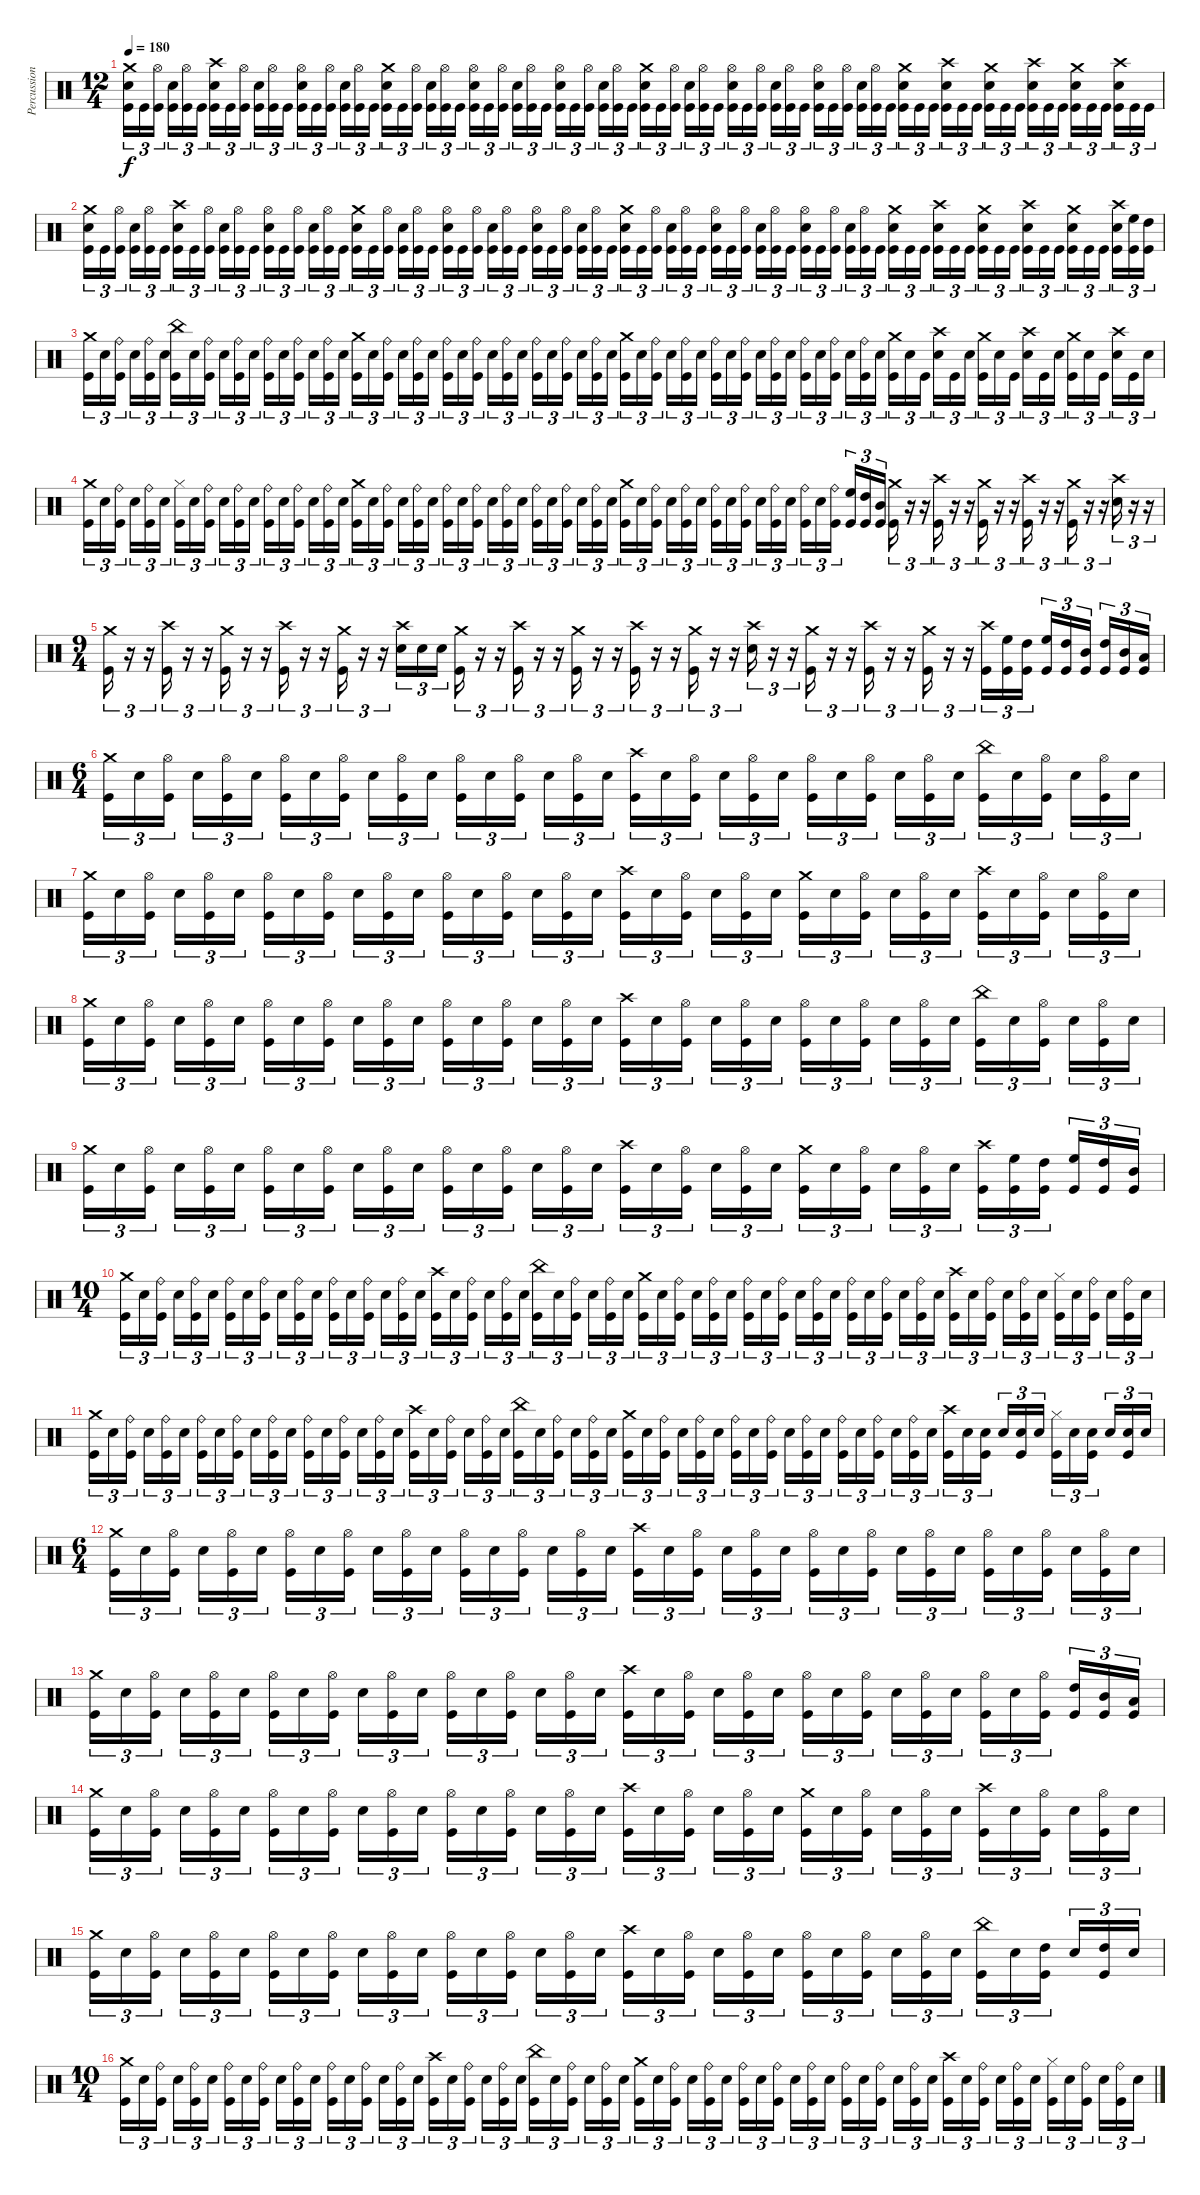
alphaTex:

\track ("Percussion" "Percussion") {instrument percussion}
\staff {score}
\articulation defaults
\ts (12 4)
\tempo 180
\clef neutral
\ks c
("Crash medium (hit)" "Snare (hit) 2" "Kick (hit)").16{tu (3 2) dy f} "Kick (hit)".16{tu (3 2)} ("Hi-Hat (open)" "Kick (hit)").16{tu (3 2) beam splitsecondary} ("Snare (hit) 2" "Kick (hit)").16{tu (3 2)} ("Hi-Hat (open)" "Kick (hit)").16{tu (3 2)} "Kick (hit)".16{tu (3 2) beam splitsecondary} ("Crash high (hit)" "Snare (hit) 2" "Kick (hit)").16{tu (3 2)} "Kick (hit)".16{tu (3 2)} ("Hi-Hat (open)" "Kick (hit)").16{tu (3 2) beam splitsecondary} ("Snare (hit) 2" "Kick (hit)").16{tu (3 2)} ("Hi-Hat (open)" "Kick (hit)").16{tu (3 2)} "Kick (hit)".16{tu (3 2) beam splitsecondary} ("Hi-Hat (open)" "Snare (hit) 2" "Kick (hit)").16{tu (3 2)} "Kick (hit)".16{tu (3 2)} ("Hi-Hat (open)" "Kick (hit)").16{tu (3 2) beam splitsecondary} ("Snare (hit) 2" "Kick (hit)").16{tu (3 2)} ("Hi-Hat (open)" "Kick (hit)").16{tu (3 2)} "Kick (hit)".16{tu (3 2)} ("Crash medium (hit)" "Snare (hit) 2" "Kick (hit)").16{tu (3 2)} "Kick (hit)".16{tu (3 2)} ("Hi-Hat (open)" "Kick (hit)").16{tu (3 2) beam splitsecondary} ("Snare (hit) 2" "Kick (hit)").16{tu (3 2)} ("Hi-Hat (open)" "Kick (hit)").16{tu (3 2)} "Kick (hit)".16{tu (3 2) beam splitsecondary} ("Hi-Hat (open)" "Snare (hit) 2" "Kick (hit)").16{tu (3 2)} "Kick (hit)".16{tu (3 2)} ("Hi-Hat (open)" "Kick (hit)").16{tu (3 2) beam splitsecondary} ("Snare (hit) 2" "Kick (hit)").16{tu (3 2)} ("Hi-Hat (open)" "Kick (hit)").16{tu (3 2)} "Kick (hit)".16{tu (3 2) beam splitsecondary} ("Hi-Hat (open)" "Snare (hit) 2" "Kick (hit)").16{tu (3 2)} "Kick (hit)".16{tu (3 2)} ("Hi-Hat (open)" "Kick (hit)").16{tu (3 2) beam splitsecondary} ("Snare (hit) 2" "Kick (hit)").16{tu (3 2)} ("Hi-Hat (open)" "Kick (hit)").16{tu (3 2)} "Kick (hit)".16{tu (3 2)} ("Crash medium (hit)" "Snare (hit) 2" "Kick (hit)").16{tu (3 2)} "Kick (hit)".16{tu (3 2)} ("Hi-Hat (open)" "Kick (hit)").16{tu (3 2) beam splitsecondary} ("Snare (hit) 2" "Kick (hit)").16{tu (3 2)} ("Hi-Hat (open)" "Kick (hit)").16{tu (3 2)} "Kick (hit)".16{tu (3 2) beam splitsecondary} ("Hi-Hat (open)" "Snare (hit) 2" "Kick (hit)").16{tu (3 2)} "Kick (hit)".16{tu (3 2)} ("Hi-Hat (open)" "Kick (hit)").16{tu (3 2) beam splitsecondary} ("Snare (hit) 2" "Kick (hit)").16{tu (3 2)} ("Hi-Hat (open)" "Kick (hit)").16{tu (3 2)} "Kick (hit)".16{tu (3 2) beam splitsecondary} ("Hi-Hat (open)" "Snare (hit) 2" "Kick (hit)").16{tu (3 2)} "Kick (hit)".16{tu (3 2)} ("Hi-Hat (open)" "Kick (hit)").16{tu (3 2) beam splitsecondary} ("Snare (hit) 2" "Kick (hit)").16{tu (3 2)} ("Hi-Hat (open)" "Kick (hit)").16{tu (3 2)} "Kick (hit)".16{tu (3 2)} ("Crash medium (hit)" "Snare (hit) 2" "Kick (hit)").16{tu (3 2)} "Kick (hit)".16{tu (3 2)} "Kick (hit)".16{tu (3 2) beam splitsecondary} ("Crash high (hit)" "Snare (hit) 2" "Kick (hit)").16{tu (3 2)} "Kick (hit)".16{tu (3 2)} "Kick (hit)".16{tu (3 2) beam splitsecondary} ("Crash medium (hit)" "Snare (hit) 2" "Kick (hit)").16{tu (3 2)} "Kick (hit)".16{tu (3 2)} "Kick (hit)".16{tu (3 2) beam splitsecondary} ("Crash high (hit)" "Snare (hit) 2" "Kick (hit)").16{tu (3 2)} "Kick (hit)".16{tu (3 2)} "Kick (hit)".16{tu (3 2) beam splitsecondary} ("Crash medium (hit)" "Snare (hit) 2" "Kick (hit)").16{tu (3 2)} "Kick (hit)".16{tu (3 2)} "Kick (hit)".16{tu (3 2) beam splitsecondary} ("Crash high (hit)" "Snare (hit) 2" "Kick (hit)").16{tu (3 2)} "Kick (hit)".16{tu (3 2)} "Kick (hit)".16{tu (3 2)} |
("Crash medium (hit)" "Snare (hit) 2" "Kick (hit)").16{tu (3 2)} "Kick (hit)".16{tu (3 2)} ("Hi-Hat (open)" "Kick (hit)").16{tu (3 2) beam splitsecondary} ("Snare (hit) 2" "Kick (hit)").16{tu (3 2)} ("Hi-Hat (open)" "Kick (hit)").16{tu (3 2)} "Kick (hit)".16{tu (3 2) beam splitsecondary} ("Crash high (hit)" "Snare (hit) 2" "Kick (hit)").16{tu (3 2)} "Kick (hit)".16{tu (3 2)} ("Hi-Hat (open)" "Kick (hit)").16{tu (3 2) beam splitsecondary} ("Snare (hit) 2" "Kick (hit)").16{tu (3 2)} ("Hi-Hat (open)" "Kick (hit)").16{tu (3 2)} "Kick (hit)".16{tu (3 2) beam splitsecondary} ("Hi-Hat (open)" "Snare (hit) 2" "Kick (hit)").16{tu (3 2)} "Kick (hit)".16{tu (3 2)} ("Hi-Hat (open)" "Kick (hit)").16{tu (3 2) beam splitsecondary} ("Snare (hit) 2" "Kick (hit)").16{tu (3 2)} ("Hi-Hat (open)" "Kick (hit)").16{tu (3 2)} "Kick (hit)".16{tu (3 2)} ("Crash medium (hit)" "Snare (hit) 2" "Kick (hit)").16{tu (3 2)} "Kick (hit)".16{tu (3 2)} ("Hi-Hat (open)" "Kick (hit)").16{tu (3 2) beam splitsecondary} ("Snare (hit) 2" "Kick (hit)").16{tu (3 2)} ("Hi-Hat (open)" "Kick (hit)").16{tu (3 2)} "Kick (hit)".16{tu (3 2) beam splitsecondary} ("Hi-Hat (open)" "Snare (hit) 2" "Kick (hit)").16{tu (3 2)} "Kick (hit)".16{tu (3 2)} ("Hi-Hat (open)" "Kick (hit)").16{tu (3 2) beam splitsecondary} ("Snare (hit) 2" "Kick (hit)").16{tu (3 2)} ("Hi-Hat (open)" "Kick (hit)").16{tu (3 2)} "Kick (hit)".16{tu (3 2) beam splitsecondary} ("Hi-Hat (open)" "Snare (hit) 2" "Kick (hit)").16{tu (3 2)} "Kick (hit)".16{tu (3 2)} ("Hi-Hat (open)" "Kick (hit)").16{tu (3 2) beam splitsecondary} ("Snare (hit) 2" "Kick (hit)").16{tu (3 2)} ("Hi-Hat (open)" "Kick (hit)").16{tu (3 2)} "Kick (hit)".16{tu (3 2)} ("Crash medium (hit)" "Snare (hit) 2" "Kick (hit)").16{tu (3 2)} "Kick (hit)".16{tu (3 2)} ("Hi-Hat (open)" "Kick (hit)").16{tu (3 2) beam splitsecondary} ("Snare (hit) 2" "Kick (hit)").16{tu (3 2)} ("Hi-Hat (open)" "Kick (hit)").16{tu (3 2)} "Kick (hit)".16{tu (3 2) beam splitsecondary} ("Hi-Hat (open)" "Snare (hit) 2" "Kick (hit)").16{tu (3 2)} "Kick (hit)".16{tu (3 2)} ("Hi-Hat (open)" "Kick (hit)").16{tu (3 2) beam splitsecondary} ("Snare (hit) 2" "Kick (hit)").16{tu (3 2)} ("Hi-Hat (open)" "Kick (hit)").16{tu (3 2)} "Kick (hit)".16{tu (3 2) beam splitsecondary} ("Hi-Hat (open)" "Snare (hit) 2" "Kick (hit)").16{tu (3 2)} "Kick (hit)".16{tu (3 2)} ("Hi-Hat (open)" "Kick (hit)").16{tu (3 2) beam splitsecondary} ("Snare (hit) 2" "Kick (hit)").16{tu (3 2)} ("Hi-Hat (open)" "Kick (hit)").16{tu (3 2)} "Kick (hit)".16{tu (3 2)} ("Crash medium (hit)" "Snare (hit) 2" "Kick (hit)").16{tu (3 2)} "Kick (hit)".16{tu (3 2)} "Kick (hit)".16{tu (3 2) beam splitsecondary} ("Crash high (hit)" "Snare (hit) 2" "Kick (hit)").16{tu (3 2)} "Kick (hit)".16{tu (3 2)} "Kick (hit)".16{tu (3 2) beam splitsecondary} ("Crash medium (hit)" "Snare (hit) 2" "Kick (hit)").16{tu (3 2)} "Kick (hit)".16{tu (3 2)} "Kick (hit)".16{tu (3 2) beam splitsecondary} ("Crash high (hit)" "Snare (hit) 2" "Kick (hit)").16{tu (3 2)} "Kick (hit)".16{tu (3 2)} "Kick (hit)".16{tu (3 2) beam splitsecondary} ("Crash medium (hit)" "Snare (hit) 2" "Kick (hit)").16{tu (3 2)} "Kick (hit)".16{tu (3 2)} "Kick (hit)".16{tu (3 2) beam splitsecondary} ("Crash high (hit)" "Snare (hit) 2" "Kick (hit)").16{tu (3 2)} ("High Floor Tom (hit)" "Kick (hit)").16{tu (3 2)} ("High Tom (hit)" "Kick (hit)").16{tu (3 2)} |
("Crash medium (hit)" "Kick (hit)").16{tu (3 2)} "Snare (hit) 2".16{tu (3 2)} ("Ride (bell)" "Kick (hit)").16{tu (3 2) beam splitsecondary} "Snare (hit) 2".16{tu (3 2)} ("Ride (bell)" "Kick (hit)").16{tu (3 2)} "Snare (hit) 2".16{tu (3 2) beam splitsecondary} ("China (hit)" "Kick (hit)").16{tu (3 2)} "Snare (hit) 2".16{tu (3 2)} ("Ride (bell)" "Kick (hit)").16{tu (3 2) beam splitsecondary} "Snare (hit) 2".16{tu (3 2)} ("Ride (bell)" "Kick (hit)").16{tu (3 2)} "Snare (hit) 2".16{tu (3 2) beam splitsecondary} ("Ride (bell)" "Kick (hit)").16{tu (3 2)} "Snare (hit) 2".16{tu (3 2)} ("Ride (bell)" "Kick (hit)").16{tu (3 2) beam splitsecondary} "Snare (hit) 2".16{tu (3 2)} ("Ride (bell)" "Kick (hit)").16{tu (3 2)} "Snare (hit) 2".16{tu (3 2)} ("Crash medium (hit)" "Kick (hit)").16{tu (3 2)} "Snare (hit) 2".16{tu (3 2)} ("Ride (bell)" "Kick (hit)").16{tu (3 2) beam splitsecondary} "Snare (hit) 2".16{tu (3 2)} ("Ride (bell)" "Kick (hit)").16{tu (3 2)} "Snare (hit) 2".16{tu (3 2) beam splitsecondary} ("Ride (bell)" "Kick (hit)").16{tu (3 2)} "Snare (hit) 2".16{tu (3 2)} ("Ride (bell)" "Kick (hit)").16{tu (3 2) beam splitsecondary} "Snare (hit) 2".16{tu (3 2)} ("Ride (bell)" "Kick (hit)").16{tu (3 2)} "Snare (hit) 2".16{tu (3 2) beam splitsecondary} ("Ride (bell)" "Kick (hit)").16{tu (3 2)} "Snare (hit) 2".16{tu (3 2)} ("Ride (bell)" "Kick (hit)").16{tu (3 2) beam splitsecondary} "Snare (hit) 2".16{tu (3 2)} ("Ride (bell)" "Kick (hit)").16{tu (3 2)} "Snare (hit) 2".16{tu (3 2)} ("Crash medium (hit)" "Kick (hit)").16{tu (3 2)} "Snare (hit) 2".16{tu (3 2)} ("Ride (bell)" "Kick (hit)").16{tu (3 2) beam splitsecondary} "Snare (hit) 2".16{tu (3 2)} ("Ride (bell)" "Kick (hit)").16{tu (3 2)} "Snare (hit) 2".16{tu (3 2) beam splitsecondary} ("Ride (bell)" "Kick (hit)").16{tu (3 2)} "Snare (hit) 2".16{tu (3 2)} ("Ride (bell)" "Kick (hit)").16{tu (3 2) beam splitsecondary} "Snare (hit) 2".16{tu (3 2)} ("Ride (bell)" "Kick (hit)").16{tu (3 2)} "Snare (hit) 2".16{tu (3 2) beam splitsecondary} ("Ride (bell)" "Kick (hit)").16{tu (3 2)} "Snare (hit) 2".16{tu (3 2)} ("Ride (bell)" "Kick (hit)").16{tu (3 2) beam splitsecondary} "Snare (hit) 2".16{tu (3 2)} ("Ride (bell)" "Kick (hit)").16{tu (3 2)} "Snare (hit) 2".16{tu (3 2)} ("Crash medium (hit)" "Kick (hit)").16{tu (3 2)} "Snare (hit) 2".16{tu (3 2)} "Kick (hit)".16{tu (3 2) beam splitsecondary} ("Crash high (hit)" "Snare (hit) 2").16{tu (3 2)} "Kick (hit)".16{tu (3 2)} "Snare (hit) 2".16{tu (3 2) beam splitsecondary} ("Crash medium (hit)" "Kick (hit)").16{tu (3 2)} "Snare (hit) 2".16{tu (3 2)} "Kick (hit)".16{tu (3 2) beam splitsecondary} ("Crash high (hit)" "Snare (hit) 2").16{tu (3 2)} "Kick (hit)".16{tu (3 2)} "Snare (hit) 2".16{tu (3 2) beam splitsecondary} ("Crash medium (hit)" "Kick (hit)").16{tu (3 2)} "Snare (hit) 2".16{tu (3 2)} "Kick (hit)".16{tu (3 2) beam splitsecondary} ("Crash high (hit)" "Snare (hit) 2").16{tu (3 2)} "Kick (hit)".16{tu (3 2)} "Snare (hit) 2".16{tu (3 2)} |
("Crash medium (hit)" "Kick (hit)").16{tu (3 2)} "Snare (hit) 2".16{tu (3 2)} ("Ride (bell)" "Kick (hit)").16{tu (3 2) beam splitsecondary} "Snare (hit) 2".16{tu (3 2)} ("Ride (bell)" "Kick (hit)").16{tu (3 2)} "Snare (hit) 2".16{tu (3 2) beam splitsecondary} ("Hi-Hat (closed)" "Kick (hit)").16{tu (3 2)} "Snare (hit) 2".16{tu (3 2)} ("Ride (bell)" "Kick (hit)").16{tu (3 2) beam splitsecondary} "Snare (hit) 2".16{tu (3 2)} ("Ride (bell)" "Kick (hit)").16{tu (3 2)} "Snare (hit) 2".16{tu (3 2) beam splitsecondary} ("Ride (bell)" "Kick (hit)").16{tu (3 2)} "Snare (hit) 2".16{tu (3 2)} ("Ride (bell)" "Kick (hit)").16{tu (3 2) beam splitsecondary} "Snare (hit) 2".16{tu (3 2)} ("Ride (bell)" "Kick (hit)").16{tu (3 2)} "Snare (hit) 2".16{tu (3 2)} ("Crash medium (hit)" "Kick (hit)").16{tu (3 2)} "Snare (hit) 2".16{tu (3 2)} ("Ride (bell)" "Kick (hit)").16{tu (3 2) beam splitsecondary} "Snare (hit) 2".16{tu (3 2)} ("Ride (bell)" "Kick (hit)").16{tu (3 2)} "Snare (hit) 2".16{tu (3 2) beam splitsecondary} ("Ride (bell)" "Kick (hit)").16{tu (3 2)} "Snare (hit) 2".16{tu (3 2)} ("Ride (bell)" "Kick (hit)").16{tu (3 2) beam splitsecondary} "Snare (hit) 2".16{tu (3 2)} ("Ride (bell)" "Kick (hit)").16{tu (3 2)} "Snare (hit) 2".16{tu (3 2) beam splitsecondary} ("Ride (bell)" "Kick (hit)").16{tu (3 2)} "Snare (hit) 2".16{tu (3 2)} ("Ride (bell)" "Kick (hit)").16{tu (3 2) beam splitsecondary} "Snare (hit) 2".16{tu (3 2)} ("Ride (bell)" "Kick (hit)").16{tu (3 2)} "Snare (hit) 2".16{tu (3 2)} ("Crash medium (hit)" "Kick (hit)").16{tu (3 2)} "Snare (hit) 2".16{tu (3 2)} ("Ride (bell)" "Kick (hit)").16{tu (3 2) beam splitsecondary} "Snare (hit) 2".16{tu (3 2)} ("Ride (bell)" "Kick (hit)").16{tu (3 2)} "Snare (hit) 2".16{tu (3 2) beam splitsecondary} ("Ride (bell)" "Kick (hit)").16{tu (3 2)} "Snare (hit) 2".16{tu (3 2)} ("Ride (bell)" "Kick (hit)").16{tu (3 2) beam splitsecondary} "Snare (hit) 2".16{tu (3 2)} ("Ride (bell)" "Kick (hit)").16{tu (3 2)} "Snare (hit) 2".16{tu (3 2) beam splitsecondary} ("Ride (bell)" "Kick (hit)").16{tu (3 2)} "Snare (hit) 2".16{tu (3 2)} ("Ride (bell)" "Kick (hit)").16{tu (3 2) beam splitsecondary} ("High Floor Tom (hit)" "Kick (hit)").16{tu (3 2)} ("High Tom (hit)" "Kick (hit)").16{tu (3 2)} ("Mid Tom (hit)" "Kick (hit)").16{tu (3 2)} ("Crash medium (hit)" "Kick (hit)").16{tu (3 2)} r.16{tu (3 2)} r.16{tu (3 2)} ("Crash high (hit)" "Kick (hit)").16{tu (3 2)} r.16{tu (3 2)} r.16{tu (3 2)} ("Crash medium (hit)" "Kick (hit)").16{tu (3 2)} r.16{tu (3 2)} r.16{tu (3 2)} ("Crash high (hit)" "Kick (hit)").16{tu (3 2)} r.16{tu (3 2)} r.16{tu (3 2)} ("Crash medium (hit)" "Kick (hit)").16{tu (3 2)} r.16{tu (3 2)} r.16{tu (3 2)} ("Crash high (hit)" "Snare (hit) 2").16{tu (3 2)} r.16{tu (3 2)} r.16{tu (3 2)} |
\ts (9 4)
("Crash medium (hit)" "Kick (hit)").16{tu (3 2)} r.16{tu (3 2)} r.16{tu (3 2)} ("Crash high (hit)" "Kick (hit)").16{tu (3 2)} r.16{tu (3 2)} r.16{tu (3 2)} ("Crash medium (hit)" "Kick (hit)").16{tu (3 2)} r.16{tu (3 2)} r.16{tu (3 2)} ("Crash high (hit)" "Kick (hit)").16{tu (3 2)} r.16{tu (3 2)} r.16{tu (3 2)} ("Crash medium (hit)" "Kick (hit)").16{tu (3 2)} r.16{tu (3 2)} r.16{tu (3 2)} ("Crash high (hit)" "Snare (hit) 2").16{tu (3 2)} "Snare (hit) 2".16{tu (3 2)} "Snare (hit) 2".16{tu (3 2)} ("Crash medium (hit)" "Kick (hit)").16{tu (3 2)} r.16{tu (3 2)} r.16{tu (3 2)} ("Crash high (hit)" "Kick (hit)").16{tu (3 2)} r.16{tu (3 2)} r.16{tu (3 2)} ("Crash medium (hit)" "Kick (hit)").16{tu (3 2)} r.16{tu (3 2)} r.16{tu (3 2)} ("Crash high (hit)" "Kick (hit)").16{tu (3 2)} r.16{tu (3 2)} r.16{tu (3 2)} ("Crash medium (hit)" "Kick (hit)").16{tu (3 2)} r.16{tu (3 2)} r.16{tu (3 2)} ("Crash high (hit)" "Snare (hit) 2").16{tu (3 2)} r.16{tu (3 2)} r.16{tu (3 2)} ("Crash medium (hit)" "Kick (hit)").16{tu (3 2)} r.16{tu (3 2)} r.16{tu (3 2)} ("Crash high (hit)" "Kick (hit)").16{tu (3 2)} r.16{tu (3 2)} r.16{tu (3 2)} ("Crash medium (hit)" "Kick (hit)").16{tu (3 2)} r.16{tu (3 2)} r.16{tu (3 2)} ("Crash high (hit)" "Kick (hit)").16{tu (3 2)} ("High Floor Tom (hit)" "Kick (hit)").16{tu (3 2)} ("High Tom (hit)" "Kick (hit)").16{tu (3 2) beam splitsecondary} ("High Floor Tom (hit)" "Kick (hit)").16{tu (3 2)} ("High Tom (hit)" "Kick (hit)").16{tu (3 2)} ("Mid Tom (hit)" "Kick (hit)").16{tu (3 2) beam splitsecondary} ("High Tom (hit)" "Kick (hit)").16{tu (3 2)} ("Mid Tom (hit)" "Kick (hit)").16{tu (3 2)} ("Low Tom (hit)" "Kick (hit)").16{tu (3 2)} |
\ts (6 4)
("Crash medium (hit)" "Kick (hit)").16{tu (3 2)} "Snare (hit) 2".16{tu (3 2)} ("Hi-Hat (open)" "Kick (hit)").16{tu (3 2) beam splitsecondary} "Snare (hit) 2".16{tu (3 2)} ("Hi-Hat (open)" "Kick (hit)").16{tu (3 2)} "Snare (hit) 2".16{tu (3 2) beam splitsecondary} ("Hi-Hat (open)" "Kick (hit)").16{tu (3 2)} "Snare (hit) 2".16{tu (3 2)} ("Hi-Hat (open)" "Kick (hit)").16{tu (3 2) beam splitsecondary} "Snare (hit) 2".16{tu (3 2)} ("Hi-Hat (open)" "Kick (hit)").16{tu (3 2)} "Snare (hit) 2".16{tu (3 2) beam splitsecondary} ("Hi-Hat (open)" "Kick (hit)").16{tu (3 2)} "Snare (hit) 2".16{tu (3 2)} ("Hi-Hat (open)" "Kick (hit)").16{tu (3 2) beam splitsecondary} "Snare (hit) 2".16{tu (3 2)} ("Hi-Hat (open)" "Kick (hit)").16{tu (3 2)} "Snare (hit) 2".16{tu (3 2)} ("Crash high (hit)" "Kick (hit)").16{tu (3 2)} "Snare (hit) 2".16{tu (3 2)} ("Hi-Hat (open)" "Kick (hit)").16{tu (3 2) beam splitsecondary} "Snare (hit) 2".16{tu (3 2)} ("Hi-Hat (open)" "Kick (hit)").16{tu (3 2)} "Snare (hit) 2".16{tu (3 2) beam splitsecondary} ("Hi-Hat (open)" "Kick (hit)").16{tu (3 2)} "Snare (hit) 2".16{tu (3 2)} ("Hi-Hat (open)" "Kick (hit)").16{tu (3 2) beam splitsecondary} "Snare (hit) 2".16{tu (3 2)} ("Hi-Hat (open)" "Kick (hit)").16{tu (3 2)} "Snare (hit) 2".16{tu (3 2) beam splitsecondary} ("China (hit)" "Kick (hit)").16{tu (3 2)} "Snare (hit) 2".16{tu (3 2)} ("Hi-Hat (open)" "Kick (hit)").16{tu (3 2) beam splitsecondary} "Snare (hit) 2".16{tu (3 2)} ("Hi-Hat (open)" "Kick (hit)").16{tu (3 2)} "Snare (hit) 2".16{tu (3 2)} |
("Crash medium (hit)" "Kick (hit)").16{tu (3 2)} "Snare (hit) 2".16{tu (3 2)} ("Hi-Hat (open)" "Kick (hit)").16{tu (3 2) beam splitsecondary} "Snare (hit) 2".16{tu (3 2)} ("Hi-Hat (open)" "Kick (hit)").16{tu (3 2)} "Snare (hit) 2".16{tu (3 2) beam splitsecondary} ("Hi-Hat (open)" "Kick (hit)").16{tu (3 2)} "Snare (hit) 2".16{tu (3 2)} ("Hi-Hat (open)" "Kick (hit)").16{tu (3 2) beam splitsecondary} "Snare (hit) 2".16{tu (3 2)} ("Hi-Hat (open)" "Kick (hit)").16{tu (3 2)} "Snare (hit) 2".16{tu (3 2) beam splitsecondary} ("Hi-Hat (open)" "Kick (hit)").16{tu (3 2)} "Snare (hit) 2".16{tu (3 2)} ("Hi-Hat (open)" "Kick (hit)").16{tu (3 2) beam splitsecondary} "Snare (hit) 2".16{tu (3 2)} ("Hi-Hat (open)" "Kick (hit)").16{tu (3 2)} "Snare (hit) 2".16{tu (3 2)} ("Crash high (hit)" "Kick (hit)").16{tu (3 2)} "Snare (hit) 2".16{tu (3 2)} ("Hi-Hat (open)" "Kick (hit)").16{tu (3 2) beam splitsecondary} "Snare (hit) 2".16{tu (3 2)} ("Hi-Hat (open)" "Kick (hit)").16{tu (3 2)} "Snare (hit) 2".16{tu (3 2) beam splitsecondary} ("Crash medium (hit)" "Kick (hit)").16{tu (3 2)} "Snare (hit) 2".16{tu (3 2)} ("Hi-Hat (open)" "Kick (hit)").16{tu (3 2) beam splitsecondary} "Snare (hit) 2".16{tu (3 2)} ("Hi-Hat (open)" "Kick (hit)").16{tu (3 2)} "Snare (hit) 2".16{tu (3 2) beam splitsecondary} ("Crash high (hit)" "Kick (hit)").16{tu (3 2)} "Snare (hit) 2".16{tu (3 2)} ("Hi-Hat (open)" "Kick (hit)").16{tu (3 2) beam splitsecondary} "Snare (hit) 2".16{tu (3 2)} ("Hi-Hat (open)" "Kick (hit)").16{tu (3 2)} "Snare (hit) 2".16{tu (3 2)} |
("Crash medium (hit)" "Kick (hit)").16{tu (3 2)} "Snare (hit) 2".16{tu (3 2)} ("Hi-Hat (open)" "Kick (hit)").16{tu (3 2) beam splitsecondary} "Snare (hit) 2".16{tu (3 2)} ("Hi-Hat (open)" "Kick (hit)").16{tu (3 2)} "Snare (hit) 2".16{tu (3 2) beam splitsecondary} ("Hi-Hat (open)" "Kick (hit)").16{tu (3 2)} "Snare (hit) 2".16{tu (3 2)} ("Hi-Hat (open)" "Kick (hit)").16{tu (3 2) beam splitsecondary} "Snare (hit) 2".16{tu (3 2)} ("Hi-Hat (open)" "Kick (hit)").16{tu (3 2)} "Snare (hit) 2".16{tu (3 2) beam splitsecondary} ("Hi-Hat (open)" "Kick (hit)").16{tu (3 2)} "Snare (hit) 2".16{tu (3 2)} ("Hi-Hat (open)" "Kick (hit)").16{tu (3 2) beam splitsecondary} "Snare (hit) 2".16{tu (3 2)} ("Hi-Hat (open)" "Kick (hit)").16{tu (3 2)} "Snare (hit) 2".16{tu (3 2)} ("Crash high (hit)" "Kick (hit)").16{tu (3 2)} "Snare (hit) 2".16{tu (3 2)} ("Hi-Hat (open)" "Kick (hit)").16{tu (3 2) beam splitsecondary} "Snare (hit) 2".16{tu (3 2)} ("Hi-Hat (open)" "Kick (hit)").16{tu (3 2)} "Snare (hit) 2".16{tu (3 2) beam splitsecondary} ("Hi-Hat (open)" "Kick (hit)").16{tu (3 2)} "Snare (hit) 2".16{tu (3 2)} ("Hi-Hat (open)" "Kick (hit)").16{tu (3 2) beam splitsecondary} "Snare (hit) 2".16{tu (3 2)} ("Hi-Hat (open)" "Kick (hit)").16{tu (3 2)} "Snare (hit) 2".16{tu (3 2) beam splitsecondary} ("China (hit)" "Kick (hit)").16{tu (3 2)} "Snare (hit) 2".16{tu (3 2)} ("Hi-Hat (open)" "Kick (hit)").16{tu (3 2) beam splitsecondary} "Snare (hit) 2".16{tu (3 2)} ("Hi-Hat (open)" "Kick (hit)").16{tu (3 2)} "Snare (hit) 2".16{tu (3 2)} |
("Crash medium (hit)" "Kick (hit)").16{tu (3 2)} "Snare (hit) 2".16{tu (3 2)} ("Hi-Hat (open)" "Kick (hit)").16{tu (3 2) beam splitsecondary} "Snare (hit) 2".16{tu (3 2)} ("Hi-Hat (open)" "Kick (hit)").16{tu (3 2)} "Snare (hit) 2".16{tu (3 2) beam splitsecondary} ("Hi-Hat (open)" "Kick (hit)").16{tu (3 2)} "Snare (hit) 2".16{tu (3 2)} ("Hi-Hat (open)" "Kick (hit)").16{tu (3 2) beam splitsecondary} "Snare (hit) 2".16{tu (3 2)} ("Hi-Hat (open)" "Kick (hit)").16{tu (3 2)} "Snare (hit) 2".16{tu (3 2) beam splitsecondary} ("Hi-Hat (open)" "Kick (hit)").16{tu (3 2)} "Snare (hit) 2".16{tu (3 2)} ("Hi-Hat (open)" "Kick (hit)").16{tu (3 2) beam splitsecondary} "Snare (hit) 2".16{tu (3 2)} ("Hi-Hat (open)" "Kick (hit)").16{tu (3 2)} "Snare (hit) 2".16{tu (3 2)} ("Crash high (hit)" "Kick (hit)").16{tu (3 2)} "Snare (hit) 2".16{tu (3 2)} ("Hi-Hat (open)" "Kick (hit)").16{tu (3 2) beam splitsecondary} "Snare (hit) 2".16{tu (3 2)} ("Hi-Hat (open)" "Kick (hit)").16{tu (3 2)} "Snare (hit) 2".16{tu (3 2) beam splitsecondary} ("Crash medium (hit)" "Kick (hit)").16{tu (3 2)} "Snare (hit) 2".16{tu (3 2)} ("Hi-Hat (open)" "Kick (hit)").16{tu (3 2) beam splitsecondary} "Snare (hit) 2".16{tu (3 2)} ("Hi-Hat (open)" "Kick (hit)").16{tu (3 2)} "Snare (hit) 2".16{tu (3 2) beam splitsecondary} ("Crash high (hit)" "Kick (hit)").16{tu (3 2)} ("High Floor Tom (hit)" "Kick (hit)").16{tu (3 2)} ("High Tom (hit)" "Kick (hit)").16{tu (3 2) beam splitsecondary} ("High Floor Tom (hit)" "Kick (hit)").16{tu (3 2)} ("High Tom (hit)" "Kick (hit)").16{tu (3 2)} ("Mid Tom (hit)" "Kick (hit)").16{tu (3 2)} |
\ts (10 4)
("Crash medium (hit)" "Kick (hit)").16{tu (3 2)} "Snare (hit) 2".16{tu (3 2)} ("Ride (bell)" "Kick (hit)").16{tu (3 2) beam splitsecondary} "Snare (hit) 2".16{tu (3 2)} ("Ride (bell)" "Kick (hit)").16{tu (3 2)} "Snare (hit) 2".16{tu (3 2)} ("Ride (bell)" "Kick (hit)").16{tu (3 2)} "Snare (hit) 2".16{tu (3 2)} ("Ride (bell)" "Kick (hit)").16{tu (3 2) beam splitsecondary} "Snare (hit) 2".16{tu (3 2)} ("Ride (bell)" "Kick (hit)").16{tu (3 2)} "Snare (hit) 2".16{tu (3 2)} ("Ride (bell)" "Kick (hit)").16{tu (3 2)} "Snare (hit) 2".16{tu (3 2)} ("Ride (bell)" "Kick (hit)").16{tu (3 2) beam splitsecondary} "Snare (hit) 2".16{tu (3 2)} ("Ride (bell)" "Kick (hit)").16{tu (3 2)} "Snare (hit) 2".16{tu (3 2)} ("Crash high (hit)" "Kick (hit)").16{tu (3 2)} "Snare (hit) 2".16{tu (3 2)} ("Ride (bell)" "Kick (hit)").16{tu (3 2) beam splitsecondary} "Snare (hit) 2".16{tu (3 2)} ("Ride (bell)" "Kick (hit)").16{tu (3 2)} "Snare (hit) 2".16{tu (3 2)} ("China (hit)" "Kick (hit)").16{tu (3 2)} "Snare (hit) 2".16{tu (3 2)} ("Ride (bell)" "Kick (hit)").16{tu (3 2) beam splitsecondary} "Snare (hit) 2".16{tu (3 2)} ("Ride (bell)" "Kick (hit)").16{tu (3 2)} "Snare (hit) 2".16{tu (3 2)} ("Crash medium (hit)" "Kick (hit)").16{tu (3 2)} "Snare (hit) 2".16{tu (3 2)} ("Ride (bell)" "Kick (hit)").16{tu (3 2) beam splitsecondary} "Snare (hit) 2".16{tu (3 2)} ("Ride (bell)" "Kick (hit)").16{tu (3 2)} "Snare (hit) 2".16{tu (3 2)} ("Ride (bell)" "Kick (hit)").16{tu (3 2)} "Snare (hit) 2".16{tu (3 2)} ("Ride (bell)" "Kick (hit)").16{tu (3 2) beam splitsecondary} "Snare (hit) 2".16{tu (3 2)} ("Ride (bell)" "Kick (hit)").16{tu (3 2)} "Snare (hit) 2".16{tu (3 2)} ("Ride (bell)" "Kick (hit)").16{tu (3 2)} "Snare (hit) 2".16{tu (3 2)} ("Ride (bell)" "Kick (hit)").16{tu (3 2) beam splitsecondary} "Snare (hit) 2".16{tu (3 2)} ("Ride (bell)" "Kick (hit)").16{tu (3 2)} "Snare (hit) 2".16{tu (3 2)} ("Crash high (hit)" "Kick (hit)").16{tu (3 2)} "Snare (hit) 2".16{tu (3 2)} ("Ride (bell)" "Kick (hit)").16{tu (3 2) beam splitsecondary} "Snare (hit) 2".16{tu (3 2)} ("Ride (bell)" "Kick (hit)").16{tu (3 2)} "Snare (hit) 2".16{tu (3 2)} ("Hi-Hat (closed)" "Kick (hit)").16{tu (3 2)} "Snare (hit) 2".16{tu (3 2)} ("Ride (bell)" "Kick (hit)").16{tu (3 2) beam splitsecondary} "Snare (hit) 2".16{tu (3 2)} ("Ride (bell)" "Kick (hit)").16{tu (3 2)} "Snare (hit) 2".16{tu (3 2)} |
("Crash medium (hit)" "Kick (hit)").16{tu (3 2)} "Snare (hit) 2".16{tu (3 2)} ("Ride (bell)" "Kick (hit)").16{tu (3 2) beam splitsecondary} "Snare (hit) 2".16{tu (3 2)} ("Ride (bell)" "Kick (hit)").16{tu (3 2)} "Snare (hit) 2".16{tu (3 2)} ("Ride (bell)" "Kick (hit)").16{tu (3 2)} "Snare (hit) 2".16{tu (3 2)} ("Ride (bell)" "Kick (hit)").16{tu (3 2) beam splitsecondary} "Snare (hit) 2".16{tu (3 2)} ("Ride (bell)" "Kick (hit)").16{tu (3 2)} "Snare (hit) 2".16{tu (3 2)} ("Ride (bell)" "Kick (hit)").16{tu (3 2)} "Snare (hit) 2".16{tu (3 2)} ("Ride (bell)" "Kick (hit)").16{tu (3 2) beam splitsecondary} "Snare (hit) 2".16{tu (3 2)} ("Ride (bell)" "Kick (hit)").16{tu (3 2)} "Snare (hit) 2".16{tu (3 2)} ("Crash high (hit)" "Kick (hit)").16{tu (3 2)} "Snare (hit) 2".16{tu (3 2)} ("Ride (bell)" "Kick (hit)").16{tu (3 2) beam splitsecondary} "Snare (hit) 2".16{tu (3 2)} ("Ride (bell)" "Kick (hit)").16{tu (3 2)} "Snare (hit) 2".16{tu (3 2)} ("China (hit)" "Kick (hit)").16{tu (3 2)} "Snare (hit) 2".16{tu (3 2)} ("Ride (bell)" "Kick (hit)").16{tu (3 2) beam splitsecondary} "Snare (hit) 2".16{tu (3 2)} ("Ride (bell)" "Kick (hit)").16{tu (3 2)} "Snare (hit) 2".16{tu (3 2)} ("Crash medium (hit)" "Kick (hit)").16{tu (3 2)} "Snare (hit) 2".16{tu (3 2)} ("Ride (bell)" "Kick (hit)").16{tu (3 2) beam splitsecondary} "Snare (hit) 2".16{tu (3 2)} ("Ride (bell)" "Kick (hit)").16{tu (3 2)} "Snare (hit) 2".16{tu (3 2)} ("Ride (bell)" "Kick (hit)").16{tu (3 2)} "Snare (hit) 2".16{tu (3 2)} ("Ride (bell)" "Kick (hit)").16{tu (3 2) beam splitsecondary} "Snare (hit) 2".16{tu (3 2)} ("Ride (bell)" "Kick (hit)").16{tu (3 2)} "Snare (hit) 2".16{tu (3 2)} ("Ride (bell)" "Kick (hit)").16{tu (3 2)} "Snare (hit) 2".16{tu (3 2)} ("Ride (bell)" "Kick (hit)").16{tu (3 2) beam splitsecondary} "Snare (hit) 2".16{tu (3 2)} ("Ride (bell)" "Kick (hit)").16{tu (3 2)} "Snare (hit) 2".16{tu (3 2)} ("Crash high (hit)" "Kick (hit)").16{tu (3 2)} "Snare (hit) 2".16{tu (3 2)} ("Snare (hit) 2" "Kick (hit)").16{tu (3 2) beam splitsecondary} "Snare (hit) 2".16{tu (3 2)} ("Snare (hit) 2" "Kick (hit)").16{tu (3 2)} "Snare (hit) 2".16{tu (3 2)} ("Hi-Hat (closed)" "Kick (hit)").16{tu (3 2)} "Snare (hit) 2".16{tu (3 2)} ("Snare (hit) 2" "Kick (hit)").16{tu (3 2) beam splitsecondary} "Snare (hit) 2".16{tu (3 2)} ("Snare (hit) 2" "Kick (hit)").16{tu (3 2)} "Snare (hit) 2".16{tu (3 2)} |
\ts (6 4)
("Crash medium (hit)" "Kick (hit)").16{tu (3 2)} "Snare (hit) 2".16{tu (3 2)} ("Hi-Hat (open)" "Kick (hit)").16{tu (3 2) beam splitsecondary} "Snare (hit) 2".16{tu (3 2)} ("Hi-Hat (open)" "Kick (hit)").16{tu (3 2)} "Snare (hit) 2".16{tu (3 2) beam splitsecondary} ("Hi-Hat (open)" "Kick (hit)").16{tu (3 2)} "Snare (hit) 2".16{tu (3 2)} ("Hi-Hat (open)" "Kick (hit)").16{tu (3 2) beam splitsecondary} "Snare (hit) 2".16{tu (3 2)} ("Hi-Hat (open)" "Kick (hit)").16{tu (3 2)} "Snare (hit) 2".16{tu (3 2) beam splitsecondary} ("Hi-Hat (open)" "Kick (hit)").16{tu (3 2)} "Snare (hit) 2".16{tu (3 2)} ("Hi-Hat (open)" "Kick (hit)").16{tu (3 2) beam splitsecondary} "Snare (hit) 2".16{tu (3 2)} ("Hi-Hat (open)" "Kick (hit)").16{tu (3 2)} "Snare (hit) 2".16{tu (3 2)} ("Crash high (hit)" "Kick (hit)").16{tu (3 2)} "Snare (hit) 2".16{tu (3 2)} ("Hi-Hat (open)" "Kick (hit)").16{tu (3 2) beam splitsecondary} "Snare (hit) 2".16{tu (3 2)} ("Hi-Hat (open)" "Kick (hit)").16{tu (3 2)} "Snare (hit) 2".16{tu (3 2) beam splitsecondary} ("Hi-Hat (open)" "Kick (hit)").16{tu (3 2)} "Snare (hit) 2".16{tu (3 2)} ("Hi-Hat (open)" "Kick (hit)").16{tu (3 2) beam splitsecondary} "Snare (hit) 2".16{tu (3 2)} ("Hi-Hat (open)" "Kick (hit)").16{tu (3 2)} "Snare (hit) 2".16{tu (3 2) beam splitsecondary} ("Hi-Hat (open)" "Kick (hit)").16{tu (3 2)} "Snare (hit) 2".16{tu (3 2)} ("Hi-Hat (open)" "Kick (hit)").16{tu (3 2) beam splitsecondary} "Snare (hit) 2".16{tu (3 2)} ("Hi-Hat (open)" "Kick (hit)").16{tu (3 2)} "Snare (hit) 2".16{tu (3 2)} |
("Crash medium (hit)" "Kick (hit)").16{tu (3 2)} "Snare (hit) 2".16{tu (3 2)} ("Hi-Hat (open)" "Kick (hit)").16{tu (3 2) beam splitsecondary} "Snare (hit) 2".16{tu (3 2)} ("Hi-Hat (open)" "Kick (hit)").16{tu (3 2)} "Snare (hit) 2".16{tu (3 2) beam splitsecondary} ("Hi-Hat (open)" "Kick (hit)").16{tu (3 2)} "Snare (hit) 2".16{tu (3 2)} ("Hi-Hat (open)" "Kick (hit)").16{tu (3 2) beam splitsecondary} "Snare (hit) 2".16{tu (3 2)} ("Hi-Hat (open)" "Kick (hit)").16{tu (3 2)} "Snare (hit) 2".16{tu (3 2) beam splitsecondary} ("Hi-Hat (open)" "Kick (hit)").16{tu (3 2)} "Snare (hit) 2".16{tu (3 2)} ("Hi-Hat (open)" "Kick (hit)").16{tu (3 2) beam splitsecondary} "Snare (hit) 2".16{tu (3 2)} ("Hi-Hat (open)" "Kick (hit)").16{tu (3 2)} "Snare (hit) 2".16{tu (3 2)} ("Crash high (hit)" "Kick (hit)").16{tu (3 2)} "Snare (hit) 2".16{tu (3 2)} ("Hi-Hat (open)" "Kick (hit)").16{tu (3 2) beam splitsecondary} "Snare (hit) 2".16{tu (3 2)} ("Hi-Hat (open)" "Kick (hit)").16{tu (3 2)} "Snare (hit) 2".16{tu (3 2) beam splitsecondary} ("Hi-Hat (open)" "Kick (hit)").16{tu (3 2)} "Snare (hit) 2".16{tu (3 2)} ("Hi-Hat (open)" "Kick (hit)").16{tu (3 2) beam splitsecondary} "Snare (hit) 2".16{tu (3 2)} ("Hi-Hat (open)" "Kick (hit)").16{tu (3 2)} "Snare (hit) 2".16{tu (3 2) beam splitsecondary} ("Hi-Hat (open)" "Kick (hit)").16{tu (3 2)} "Snare (hit) 2".16{tu (3 2)} ("Hi-Hat (open)" "Kick (hit)").16{tu (3 2) beam splitsecondary} ("High Tom (hit)" "Kick (hit)").16{tu (3 2)} ("Mid Tom (hit)" "Kick (hit)").16{tu (3 2)} ("Low Tom (hit)" "Kick (hit)").16{tu (3 2)} |
("Crash medium (hit)" "Kick (hit)").16{tu (3 2)} "Snare (hit) 2".16{tu (3 2)} ("Hi-Hat (open)" "Kick (hit)").16{tu (3 2) beam splitsecondary} "Snare (hit) 2".16{tu (3 2)} ("Hi-Hat (open)" "Kick (hit)").16{tu (3 2)} "Snare (hit) 2".16{tu (3 2) beam splitsecondary} ("Hi-Hat (open)" "Kick (hit)").16{tu (3 2)} "Snare (hit) 2".16{tu (3 2)} ("Hi-Hat (open)" "Kick (hit)").16{tu (3 2) beam splitsecondary} "Snare (hit) 2".16{tu (3 2)} ("Hi-Hat (open)" "Kick (hit)").16{tu (3 2)} "Snare (hit) 2".16{tu (3 2) beam splitsecondary} ("Hi-Hat (open)" "Kick (hit)").16{tu (3 2)} "Snare (hit) 2".16{tu (3 2)} ("Hi-Hat (open)" "Kick (hit)").16{tu (3 2) beam splitsecondary} "Snare (hit) 2".16{tu (3 2)} ("Hi-Hat (open)" "Kick (hit)").16{tu (3 2)} "Snare (hit) 2".16{tu (3 2)} ("Crash high (hit)" "Kick (hit)").16{tu (3 2)} "Snare (hit) 2".16{tu (3 2)} ("Hi-Hat (open)" "Kick (hit)").16{tu (3 2) beam splitsecondary} "Snare (hit) 2".16{tu (3 2)} ("Hi-Hat (open)" "Kick (hit)").16{tu (3 2)} "Snare (hit) 2".16{tu (3 2) beam splitsecondary} ("Crash medium (hit)" "Kick (hit)").16{tu (3 2)} "Snare (hit) 2".16{tu (3 2)} ("Hi-Hat (open)" "Kick (hit)").16{tu (3 2) beam splitsecondary} "Snare (hit) 2".16{tu (3 2)} ("Hi-Hat (open)" "Kick (hit)").16{tu (3 2)} "Snare (hit) 2".16{tu (3 2) beam splitsecondary} ("Crash high (hit)" "Kick (hit)").16{tu (3 2)} "Snare (hit) 2".16{tu (3 2)} ("Hi-Hat (open)" "Kick (hit)").16{tu (3 2) beam splitsecondary} "Snare (hit) 2".16{tu (3 2)} ("Hi-Hat (open)" "Kick (hit)").16{tu (3 2)} "Snare (hit) 2".16{tu (3 2)} |
("Crash medium (hit)" "Kick (hit)").16{tu (3 2)} "Snare (hit) 2".16{tu (3 2)} ("Hi-Hat (open)" "Kick (hit)").16{tu (3 2) beam splitsecondary} "Snare (hit) 2".16{tu (3 2)} ("Hi-Hat (open)" "Kick (hit)").16{tu (3 2)} "Snare (hit) 2".16{tu (3 2) beam splitsecondary} ("Hi-Hat (open)" "Kick (hit)").16{tu (3 2)} "Snare (hit) 2".16{tu (3 2)} ("Hi-Hat (open)" "Kick (hit)").16{tu (3 2) beam splitsecondary} "Snare (hit) 2".16{tu (3 2)} ("Hi-Hat (open)" "Kick (hit)").16{tu (3 2)} "Snare (hit) 2".16{tu (3 2) beam splitsecondary} ("Hi-Hat (open)" "Kick (hit)").16{tu (3 2)} "Snare (hit) 2".16{tu (3 2)} ("Hi-Hat (open)" "Kick (hit)").16{tu (3 2) beam splitsecondary} "Snare (hit) 2".16{tu (3 2)} ("Hi-Hat (open)" "Kick (hit)").16{tu (3 2)} "Snare (hit) 2".16{tu (3 2)} ("Crash high (hit)" "Kick (hit)").16{tu (3 2)} "Snare (hit) 2".16{tu (3 2)} ("Hi-Hat (open)" "Kick (hit)").16{tu (3 2) beam splitsecondary} "Snare (hit) 2".16{tu (3 2)} ("Hi-Hat (open)" "Kick (hit)").16{tu (3 2)} "Snare (hit) 2".16{tu (3 2) beam splitsecondary} ("Hi-Hat (open)" "Kick (hit)").16{tu (3 2)} "Snare (hit) 2".16{tu (3 2)} ("Hi-Hat (open)" "Kick (hit)").16{tu (3 2) beam splitsecondary} "Snare (hit) 2".16{tu (3 2)} ("Hi-Hat (open)" "Kick (hit)").16{tu (3 2)} "Snare (hit) 2".16{tu (3 2) beam splitsecondary} ("China (hit)" "Kick (hit)").16{tu (3 2)} "Snare (hit) 2".16{tu (3 2)} ("High Tom (hit)" "Kick (hit)").16{tu (3 2) beam splitsecondary} "Snare (hit) 2".16{tu (3 2)} ("High Tom (hit)" "Kick (hit)").16{tu (3 2)} "Snare (hit) 2".16{tu (3 2)} |
\ts (10 4)
("Crash medium (hit)" "Kick (hit)").16{tu (3 2)} "Snare (hit) 2".16{tu (3 2)} ("Ride (bell)" "Kick (hit)").16{tu (3 2) beam splitsecondary} "Snare (hit) 2".16{tu (3 2)} ("Ride (bell)" "Kick (hit)").16{tu (3 2)} "Snare (hit) 2".16{tu (3 2)} ("Ride (bell)" "Kick (hit)").16{tu (3 2)} "Snare (hit) 2".16{tu (3 2)} ("Ride (bell)" "Kick (hit)").16{tu (3 2) beam splitsecondary} "Snare (hit) 2".16{tu (3 2)} ("Ride (bell)" "Kick (hit)").16{tu (3 2)} "Snare (hit) 2".16{tu (3 2)} ("Ride (bell)" "Kick (hit)").16{tu (3 2)} "Snare (hit) 2".16{tu (3 2)} ("Ride (bell)" "Kick (hit)").16{tu (3 2) beam splitsecondary} "Snare (hit) 2".16{tu (3 2)} ("Ride (bell)" "Kick (hit)").16{tu (3 2)} "Snare (hit) 2".16{tu (3 2)} ("Crash high (hit)" "Kick (hit)").16{tu (3 2)} "Snare (hit) 2".16{tu (3 2)} ("Ride (bell)" "Kick (hit)").16{tu (3 2) beam splitsecondary} "Snare (hit) 2".16{tu (3 2)} ("Ride (bell)" "Kick (hit)").16{tu (3 2)} "Snare (hit) 2".16{tu (3 2)} ("China (hit)" "Kick (hit)").16{tu (3 2)} "Snare (hit) 2".16{tu (3 2)} ("Ride (bell)" "Kick (hit)").16{tu (3 2) beam splitsecondary} "Snare (hit) 2".16{tu (3 2)} ("Ride (bell)" "Kick (hit)").16{tu (3 2)} "Snare (hit) 2".16{tu (3 2)} ("Crash medium (hit)" "Kick (hit)").16{tu (3 2)} "Snare (hit) 2".16{tu (3 2)} ("Ride (bell)" "Kick (hit)").16{tu (3 2) beam splitsecondary} "Snare (hit) 2".16{tu (3 2)} ("Ride (bell)" "Kick (hit)").16{tu (3 2)} "Snare (hit) 2".16{tu (3 2)} ("Ride (bell)" "Kick (hit)").16{tu (3 2)} "Snare (hit) 2".16{tu (3 2)} ("Ride (bell)" "Kick (hit)").16{tu (3 2) beam splitsecondary} "Snare (hit) 2".16{tu (3 2)} ("Ride (bell)" "Kick (hit)").16{tu (3 2)} "Snare (hit) 2".16{tu (3 2)} ("Ride (bell)" "Kick (hit)").16{tu (3 2)} "Snare (hit) 2".16{tu (3 2)} ("Ride (bell)" "Kick (hit)").16{tu (3 2) beam splitsecondary} "Snare (hit) 2".16{tu (3 2)} ("Ride (bell)" "Kick (hit)").16{tu (3 2)} "Snare (hit) 2".16{tu (3 2)} ("Crash high (hit)" "Kick (hit)").16{tu (3 2)} "Snare (hit) 2".16{tu (3 2)} ("Ride (bell)" "Kick (hit)").16{tu (3 2) beam splitsecondary} "Snare (hit) 2".16{tu (3 2)} ("Ride (bell)" "Kick (hit)").16{tu (3 2)} "Snare (hit) 2".16{tu (3 2)} ("Hi-Hat (closed)" "Kick (hit)").16{tu (3 2)} "Snare (hit) 2".16{tu (3 2)} ("Ride (bell)" "Kick (hit)").16{tu (3 2) beam splitsecondary} "Snare (hit) 2".16{tu (3 2)} ("Ride (bell)" "Kick (hit)").16{tu (3 2)} "Snare (hit) 2".16{tu (3 2)}
